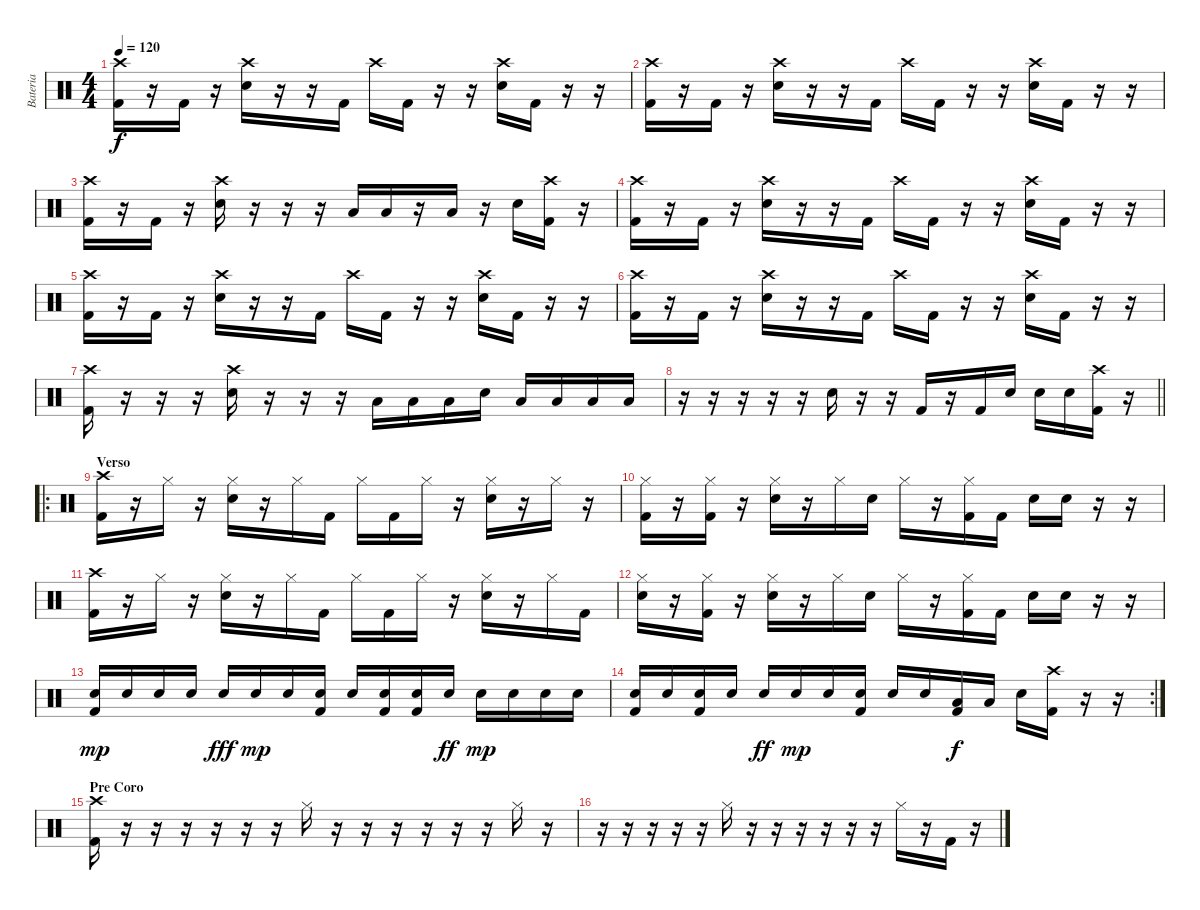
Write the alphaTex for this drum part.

\track ("Bateria" "Bateria") {instrument percussion}
\staff {score}
\articulation defaults
\ts (4 4)
\tempo 120
\clef neutral
\ks c
("Crash high (hit)" "Kick (hit) 2").16{dy f} r.16 "Kick (hit) 2".16 r.16 ("Crash high (hit)" "Snare (hit) 2").16 r.16 r.16 "Kick (hit) 2".16 "Crash high (hit)".16 "Kick (hit) 2".16 r.16 r.16 ("Crash high (hit)" "Snare (hit) 2").16 "Kick (hit) 2".16 r.16 r.16 |
("Crash high (hit)" "Kick (hit) 2").16 r.16 "Kick (hit) 2".16 r.16 ("Crash high (hit)" "Snare (hit) 2").16 r.16 r.16 "Kick (hit) 2".16 "Crash high (hit)".16 "Kick (hit) 2".16 r.16 r.16 ("Crash high (hit)" "Snare (hit) 2").16 "Kick (hit) 2".16 r.16 r.16 |
("Crash high (hit)" "Kick (hit) 2").16 r.16 "Kick (hit) 2".16 r.16 ("Crash high (hit)" "Snare (hit) 2").16 r.16 r.16 r.16 "Low Tom (hit)".16 "Low Tom (hit)".16 r.16 "Low Floor Tom (hit)".16 r.16 "Snare (hit) 2".16 ("Crash high (hit)" "Kick (hit) 2").16 r.16 |
("Crash high (hit)" "Kick (hit) 2").16 r.16 "Kick (hit) 2".16 r.16 ("Crash high (hit)" "Snare (hit) 2").16 r.16 r.16 "Kick (hit) 2".16 "Crash high (hit)".16 "Kick (hit) 2".16 r.16 r.16 ("Crash high (hit)" "Snare (hit) 2").16 "Kick (hit) 2".16 r.16 r.16 |
("Crash high (hit)" "Kick (hit) 2").16 r.16 "Kick (hit) 2".16 r.16 ("Crash high (hit)" "Snare (hit) 2").16 r.16 r.16 "Kick (hit) 2".16 "Crash high (hit)".16 "Kick (hit) 2".16 r.16 r.16 ("Crash high (hit)" "Snare (hit) 2").16 "Kick (hit) 2".16 r.16 r.16 |
("Crash high (hit)" "Kick (hit) 2").16 r.16 "Kick (hit) 2".16 r.16 ("Crash high (hit)" "Snare (hit) 2").16 r.16 r.16 "Kick (hit) 2".16 "Crash high (hit)".16 "Kick (hit) 2".16 r.16 r.16 ("Crash high (hit)" "Snare (hit) 2").16 "Kick (hit) 2".16 r.16 r.16 |
("Crash high (hit)" "Kick (hit) 2").16 r.16 r.16 r.16 ("Crash high (hit)" "Snare (hit) 2").16 r.16 r.16 r.16 "Low Tom (hit)".16 "Low Tom (hit)".16 "Low Floor Tom (hit)".16 "Snare (hit) 2".16 "Low Floor Tom (hit)".16 "Low Floor Tom (hit)".16 "Low Floor Tom (hit)".16 "Low Floor Tom (hit)".16 |
\barLineRight lightlight
r.16 r.16 r.16 r.16 r.16 "Snare (hit) 2".16 r.16 r.16 "Kick (hit) 2".16 r.16 "Kick (hit) 2".16 "Snare (hit) 2".16 "Snare (hit) 2".16 "Snare (hit) 2".16 ("Crash high (hit)" "Kick (hit) 2").16 r.16 |
\ro
\section ("" "Verso")
("Crash high (hit)" "Kick (hit) 2").16 r.16 "Hi-Hat (closed)".16 r.16 ("Hi-Hat (closed)" "Snare (hit) 2").16 r.16 "Hi-Hat (closed)".16 "Kick (hit) 2".16 "Hi-Hat (closed)".16 "Kick (hit) 2".16 "Hi-Hat (closed)".16 r.16 ("Hi-Hat (closed)" "Snare (hit) 2").16 r.16 "Hi-Hat (closed)".16 r.16 |
("Hi-Hat (closed)" "Kick (hit) 2").16 r.16 ("Hi-Hat (closed)" "Kick (hit) 2").16 r.16 ("Hi-Hat (closed)" "Snare (hit) 2").16 r.16 "Hi-Hat (closed)".16 "Snare (hit) 2".16 "Hi-Hat (closed)".16 r.16 ("Hi-Hat (closed)" "Kick (hit) 2").16 "Kick (hit) 2".16 "Snare (hit) 2".16 "Snare (hit) 2".16 r.16 r.16 |
("Crash high (hit)" "Kick (hit) 2").16 r.16 "Hi-Hat (closed)".16 r.16 ("Hi-Hat (closed)" "Snare (hit) 2").16 r.16 "Hi-Hat (closed)".16 "Kick (hit) 2".16 "Hi-Hat (closed)".16 "Kick (hit) 2".16 "Hi-Hat (closed)".16 r.16 ("Hi-Hat (closed)" "Snare (hit) 2").16 r.16 "Hi-Hat (closed)".16 "Kick (hit) 2".16 |
("Hi-Hat (closed)" "Snare (hit) 2").16 r.16 ("Hi-Hat (closed)" "Kick (hit) 2").16 r.16 ("Hi-Hat (closed)" "Snare (hit) 2").16 r.16 "Hi-Hat (closed)".16 "Snare (hit) 2".16 "Hi-Hat (closed)".16 r.16 ("Hi-Hat (closed)" "Kick (hit) 2").16 "Kick (hit) 2".16 "Snare (hit) 2".16 "Snare (hit) 2".16 r.16 r.16 |
("Snare (hit) 2" "Kick (hit) 2").16{dy mp} "Snare (hit) 2".16 "Snare (hit) 2".16 "Snare (hit) 2".16 "Snare (hit) 2".16{dy fff} "Snare (hit) 2".16{dy mp} "Snare (hit) 2".16 ("Snare (hit) 2" "Kick (hit) 2").16 "Snare (hit) 2".16 ("Snare (hit) 2" "Kick (hit) 2").16 ("Snare (hit) 2" "Kick (hit) 2").16 "Snare (hit) 2".16{dy ff} "Snare (hit) 2".16{dy mp} "Snare (hit) 2".16 "Snare (hit) 2".16 "Snare (hit) 2".16 |
\rc 2
("Snare (hit) 2" "Kick (hit) 2").16 "Snare (hit) 2".16 ("Snare (hit) 2" "Kick (hit) 2").16 "Snare (hit) 2".16 "Snare (hit) 2".16{dy ff} "Snare (hit) 2".16{dy mp} "Snare (hit) 2".16 ("Snare (hit) 2" "Kick (hit) 2").16 "Snare (hit) 2".16 "Snare (hit) 2".16 ("Low Tom (hit)" "Kick (hit) 2").16{dy f} "Low Tom (hit)".16 "Snare (hit) 2".16 ("Crash high (hit)" "Kick (hit) 2").16 r.16 r.16 |
\section ("" "Pre Coro")
("Crash high (hit)" "Kick (hit) 2").16 r.16 r.16 r.16 r.16 r.16 r.16 "Hi-Hat (closed)".16 r.16 r.16 r.16 r.16 r.16 r.16 "Hi-Hat (closed)".16 r.16 |
r.16 r.16 r.16 r.16 r.16 "Hi-Hat (closed)".16 r.16 r.16 r.16 r.16 r.16 r.16 "Hi-Hat (closed)".16 r.16 "Kick (hit) 2".16 r.16
